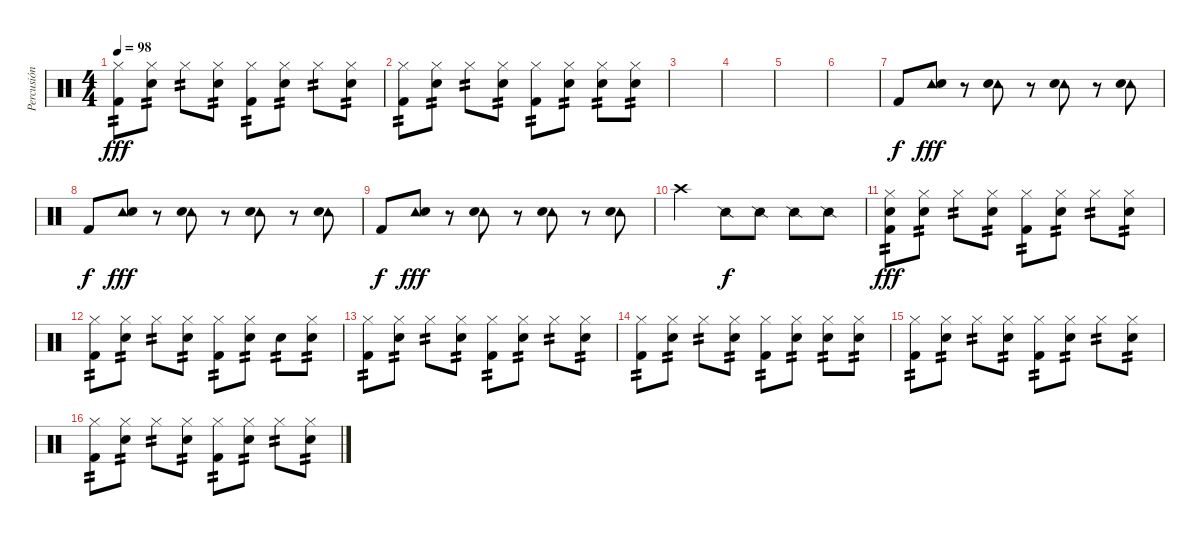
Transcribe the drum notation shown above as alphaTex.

\track ("Percusión" "Percusión") {instrument percussion}
\staff {score}
\articulation defaults
\ts (4 4)
\tempo 98
\clef neutral
\ks c
("Hi-Hat (closed)" "Kick (hit) 2").8{tp 2 dy fff} ("Hi-Hat (closed)" "Snare (hit) 2").8{tp 2} "Hi-Hat (closed)".8{tp 2} ("Hi-Hat (closed)" "Snare (hit) 2").8{tp 2} ("Hi-Hat (closed)" "Kick (hit) 2").8{tp 2} ("Hi-Hat (closed)" "Snare (hit) 2").8{tp 2} "Hi-Hat (closed)".8{tp 2} ("Hi-Hat (closed)" "Snare (hit) 2").8{tp 2} |
("Hi-Hat (closed)" "Kick (hit) 2").8{tp 2} ("Hi-Hat (closed)" "Snare (hit) 2").8{tp 2} "Hi-Hat (closed)".8{tp 2} ("Hi-Hat (closed)" "Snare (hit) 2").8{tp 2} ("Hi-Hat (closed)" "Kick (hit) 2").8{tp 2} ("Hi-Hat (closed)" "Snare (hit) 2").8{tp 2} ("Hi-Hat (closed)" "Snare (hit) 2").8{tp 2} ("Hi-Hat (closed)" "Snare (hit) 2").8{tp 2} |
|
|
|
|
"Kick (hit) 2".8{dy f} ("Tambourine (hit)" "Snare (hit) 2").8{dy fff} r.8 ("Tambourine (hit)" "Snare (hit) 2").8 r.8 ("Tambourine (hit)" "Snare (hit) 2").8 r.8 ("Tambourine (hit)" "Snare (hit) 2").8 |
"Kick (hit) 2".8{dy f} ("Tambourine (hit)" "Snare (hit) 2").8{dy fff} r.8 ("Tambourine (hit)" "Snare (hit) 2").8 r.8 ("Tambourine (hit)" "Snare (hit) 2").8 r.8 ("Tambourine (hit)" "Snare (hit) 2").8 |
"Kick (hit) 2".8{dy f} ("Tambourine (hit)" "Snare (hit) 2").8{dy fff} r.8 ("Tambourine (hit)" "Snare (hit) 2").8 r.8 ("Tambourine (hit)" "Snare (hit) 2").8 r.8 ("Tambourine (hit)" "Snare (hit) 2").8 |
"Crash high (hit)".2 "Snare (side stick) 2".8{dy f} "Snare (side stick) 2".8 "Snare (side stick) 2".8 "Snare (side stick) 2".8 |
("Hi-Hat (closed)" "Snare (hit)" "Kick (hit) 2").8{tp 2 dy fff} ("Hi-Hat (closed)" "Snare (hit) 2").8{tp 2} "Hi-Hat (closed)".8{tp 2} ("Hi-Hat (closed)" "Snare (hit) 2").8{tp 2} ("Hi-Hat (closed)" "Kick (hit) 2").8{tp 2} ("Hi-Hat (closed)" "Snare (hit) 2").8{tp 2} "Hi-Hat (closed)".8{tp 2} ("Hi-Hat (closed)" "Snare (hit) 2").8{tp 2} |
("Hi-Hat (closed)" "Kick (hit) 2").8{tp 2} ("Hi-Hat (closed)" "Snare (hit) 2").8{tp 2} "Hi-Hat (closed)".8{tp 2} ("Hi-Hat (closed)" "Snare (hit) 2").8{tp 2} ("Hi-Hat (closed)" "Kick (hit) 2").8{tp 2} ("Hi-Hat (closed)" "Snare (hit) 2").8{tp 2} "Snare (hit) 2".8{tp 2} ("Hi-Hat (closed)" "Snare (hit) 2").8{tp 2} |
("Hi-Hat (closed)" "Kick (hit) 2").8{tp 2} ("Hi-Hat (closed)" "Snare (hit) 2").8{tp 2} "Hi-Hat (closed)".8{tp 2} ("Hi-Hat (closed)" "Snare (hit) 2").8{tp 2} ("Hi-Hat (closed)" "Kick (hit) 2").8{tp 2} ("Hi-Hat (closed)" "Snare (hit) 2").8{tp 2} "Hi-Hat (closed)".8{tp 2} ("Hi-Hat (closed)" "Snare (hit) 2").8{tp 2} |
("Hi-Hat (closed)" "Kick (hit) 2").8{tp 2} ("Hi-Hat (closed)" "Snare (hit) 2").8{tp 2} "Hi-Hat (closed)".8{tp 2} ("Hi-Hat (closed)" "Snare (hit) 2").8{tp 2} ("Hi-Hat (closed)" "Kick (hit) 2").8{tp 2} ("Hi-Hat (closed)" "Snare (hit) 2").8{tp 2} ("Hi-Hat (closed)" "Snare (hit) 2").8{tp 2} ("Hi-Hat (closed)" "Snare (hit) 2").8{tp 2} |
("Hi-Hat (closed)" "Kick (hit) 2").8{tp 2} ("Hi-Hat (closed)" "Snare (hit) 2").8{tp 2} "Hi-Hat (closed)".8{tp 2} ("Hi-Hat (closed)" "Snare (hit) 2").8{tp 2} ("Hi-Hat (closed)" "Kick (hit) 2").8{tp 2} ("Hi-Hat (closed)" "Snare (hit) 2").8{tp 2} "Hi-Hat (closed)".8{tp 2} ("Hi-Hat (closed)" "Snare (hit) 2").8{tp 2} |
("Hi-Hat (closed)" "Kick (hit) 2").8{tp 2} ("Hi-Hat (closed)" "Snare (hit) 2").8{tp 2} "Hi-Hat (closed)".8{tp 2} ("Hi-Hat (closed)" "Snare (hit) 2").8{tp 2} ("Hi-Hat (closed)" "Kick (hit) 2").8{tp 2} ("Hi-Hat (closed)" "Snare (hit) 2").8{tp 2} "Hi-Hat (closed)".8{tp 2} ("Hi-Hat (closed)" "Snare (hit) 2").8{tp 2}
